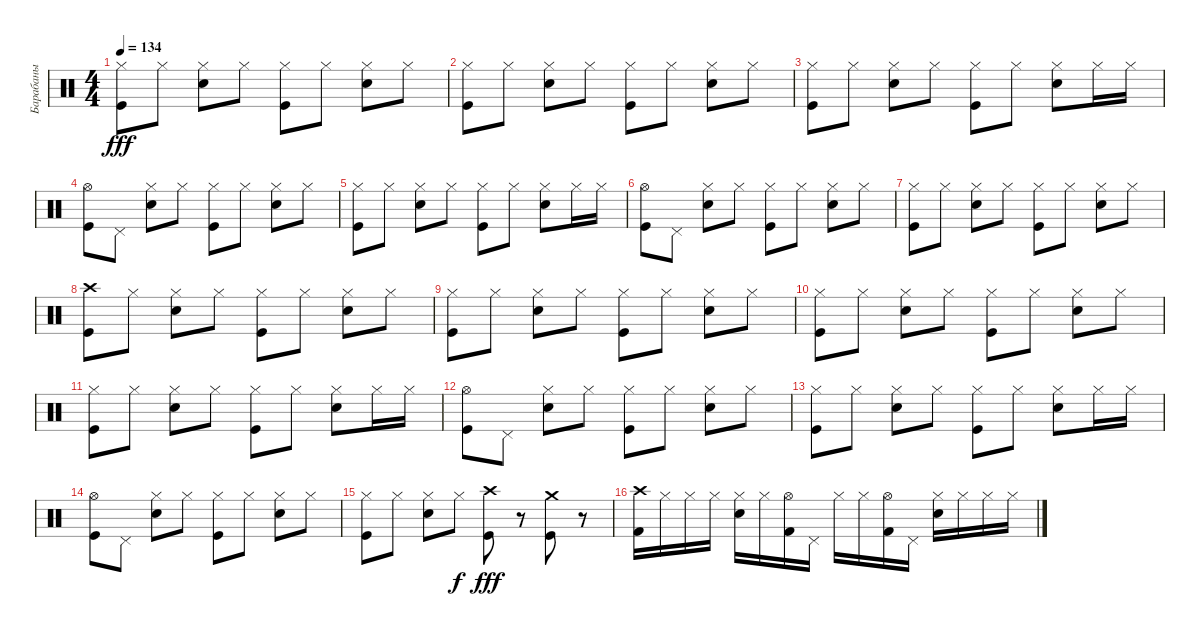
\track ("Барабаны" "Барабаны") {instrument percussion}
\staff {score}
\articulation defaults
\ts (4 4)
\tempo 134
\clef neutral
\ks c
("Hi-Hat (closed)" "Kick (hit)").8{dy fff} "Hi-Hat (closed)".8 ("Hi-Hat (closed)" "Snare (hit) 2").8 "Hi-Hat (closed)".8 ("Hi-Hat (closed)" "Kick (hit)").8 "Hi-Hat (closed)".8 ("Hi-Hat (closed)" "Snare (hit) 2").8 "Hi-Hat (closed)".8 |
("Hi-Hat (closed)" "Kick (hit)").8 "Hi-Hat (closed)".8 ("Hi-Hat (closed)" "Electric Snare (hit)").8 "Hi-Hat (closed)".8 ("Hi-Hat (closed)" "Kick (hit)").8 "Hi-Hat (closed)".8 ("Hi-Hat (closed)" "Electric Snare (hit)").8 "Hi-Hat (closed)".8 |
("Hi-Hat (closed)" "Kick (hit)").8 "Hi-Hat (closed)".8 ("Hi-Hat (closed)" "Electric Snare (hit)").8 "Hi-Hat (closed)".8 ("Hi-Hat (closed)" "Kick (hit)").8 "Hi-Hat (closed)".8 ("Hi-Hat (closed)" "Electric Snare (hit)").8 "Hi-Hat (closed)".16 "Hi-Hat (closed)".16 |
("Hi-Hat (open)" "Kick (hit)").8 "Pedal Hi-Hat (hit)".8 ("Hi-Hat (closed)" "Electric Snare (hit)").8 "Hi-Hat (closed)".8 ("Hi-Hat (closed)" "Kick (hit)").8 "Hi-Hat (closed)".8 ("Hi-Hat (closed)" "Electric Snare (hit)").8 "Hi-Hat (closed)".8 |
("Hi-Hat (closed)" "Kick (hit)").8 "Hi-Hat (closed)".8 ("Hi-Hat (closed)" "Electric Snare (hit)").8 "Hi-Hat (closed)".8 ("Hi-Hat (closed)" "Kick (hit)").8 "Hi-Hat (closed)".8 ("Hi-Hat (closed)" "Electric Snare (hit)").8 "Hi-Hat (closed)".16 "Hi-Hat (closed)".16 |
("Hi-Hat (open)" "Kick (hit)").8 "Pedal Hi-Hat (hit)".8 ("Hi-Hat (closed)" "Electric Snare (hit)").8 "Hi-Hat (closed)".8 ("Hi-Hat (closed)" "Kick (hit)").8 "Hi-Hat (closed)".8 ("Hi-Hat (closed)" "Electric Snare (hit)").8 "Hi-Hat (closed)".8 |
("Hi-Hat (closed)" "Kick (hit)").8 "Hi-Hat (closed)".8 ("Hi-Hat (closed)" "Electric Snare (hit)").8 "Hi-Hat (closed)".8 ("Hi-Hat (closed)" "Kick (hit)").8 "Hi-Hat (closed)".8 ("Hi-Hat (closed)" "Electric Snare (hit)").8 "Hi-Hat (closed)".8 |
("Crash high (hit)" "Kick (hit)").8 "Hi-Hat (closed)".8 ("Hi-Hat (closed)" "Electric Snare (hit)").8 "Hi-Hat (closed)".8 ("Hi-Hat (closed)" "Kick (hit)").8 "Hi-Hat (closed)".8 ("Hi-Hat (closed)" "Electric Snare (hit)").8 "Hi-Hat (closed)".8 |
("Hi-Hat (closed)" "Kick (hit)").8 "Hi-Hat (closed)".8 ("Hi-Hat (closed)" "Electric Snare (hit)").8 "Hi-Hat (closed)".8 ("Hi-Hat (closed)" "Kick (hit)").8 "Hi-Hat (closed)".8 ("Hi-Hat (closed)" "Electric Snare (hit)").8 "Hi-Hat (closed)".8 |
("Hi-Hat (closed)" "Kick (hit)").8 "Hi-Hat (closed)".8 ("Hi-Hat (closed)" "Electric Snare (hit)").8 "Hi-Hat (closed)".8 ("Hi-Hat (closed)" "Kick (hit)").8 "Hi-Hat (closed)".8 ("Hi-Hat (closed)" "Electric Snare (hit)").8 "Hi-Hat (closed)".8 |
("Hi-Hat (closed)" "Kick (hit)").8 "Hi-Hat (closed)".8 ("Hi-Hat (closed)" "Electric Snare (hit)").8 "Hi-Hat (closed)".8 ("Hi-Hat (closed)" "Kick (hit)").8 "Hi-Hat (closed)".8 ("Hi-Hat (closed)" "Electric Snare (hit)").8 "Hi-Hat (closed)".16 "Hi-Hat (closed)".16 |
("Hi-Hat (open)" "Kick (hit)").8 "Pedal Hi-Hat (hit)".8 ("Hi-Hat (closed)" "Electric Snare (hit)").8 "Hi-Hat (closed)".8 ("Hi-Hat (closed)" "Kick (hit)").8 "Hi-Hat (closed)".8 ("Hi-Hat (closed)" "Electric Snare (hit)").8 "Hi-Hat (closed)".8 |
("Hi-Hat (closed)" "Kick (hit)").8 "Hi-Hat (closed)".8 ("Hi-Hat (closed)" "Electric Snare (hit)").8 "Hi-Hat (closed)".8 ("Hi-Hat (closed)" "Kick (hit)").8 "Hi-Hat (closed)".8 ("Hi-Hat (closed)" "Electric Snare (hit)").8 "Hi-Hat (closed)".16 "Hi-Hat (closed)".16 |
("Hi-Hat (open)" "Kick (hit)").8 "Pedal Hi-Hat (hit)".8 ("Hi-Hat (closed)" "Electric Snare (hit)").8 "Hi-Hat (closed)".8 ("Hi-Hat (closed)" "Kick (hit)").8 "Hi-Hat (closed)".8 ("Hi-Hat (closed)" "Electric Snare (hit)").8 "Hi-Hat (closed)".8 |
("Hi-Hat (closed)" "Kick (hit)").8 "Hi-Hat (closed)".8 ("Hi-Hat (closed)" "Electric Snare (hit)").8 "Hi-Hat (closed)".8{dy f} ("Crash high (hit)" "Kick (hit)").8{dy fff} r.8 ("Crash medium (hit)" "Kick (hit)").8 r.8 |
("Crash high (hit)" "Kick (hit) 2").16 "Hi-Hat (closed)".16 "Hi-Hat (closed)".16 "Hi-Hat (closed)".16 ("Hi-Hat (closed)" "Electric Snare (hit)").16 "Hi-Hat (closed)".16 ("Hi-Hat (open)" "Kick (hit) 2").16 "Pedal Hi-Hat (hit)".16 "Hi-Hat (closed)".16 "Hi-Hat (closed)".16 ("Hi-Hat (open)" "Kick (hit) 2").16 "Pedal Hi-Hat (hit)".16 ("Hi-Hat (closed)" "Electric Snare (hit)").16 "Hi-Hat (closed)".16 "Hi-Hat (closed)".16 "Hi-Hat (closed)".16
